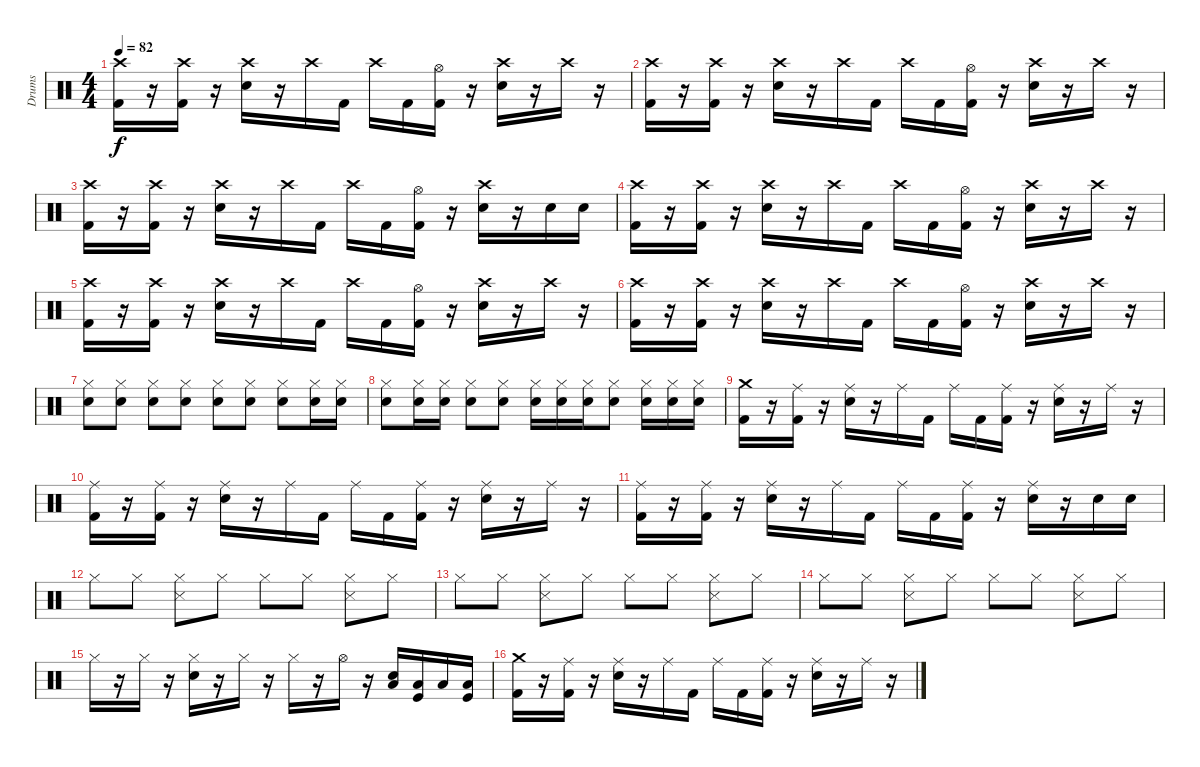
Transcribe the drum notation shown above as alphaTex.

\track ("Drums" "Drums") {instrument percussion}
\staff {score}
\articulation defaults
\ts (4 4)
\tempo 82
\clef neutral
\ks c
("Crash high (hit)" "Kick (hit) 2").16{dy f} r.16 ("Crash high (hit)" "Kick (hit) 2").16 r.16 ("Crash high (hit)" "Electric Snare (hit)").16 r.16 "Crash high (hit)".16 "Kick (hit) 2".16 "Crash high (hit)".16 "Kick (hit) 2".16 ("Hi-Hat (open)" "Kick (hit) 2").16 r.16 ("Crash high (hit)" "Electric Snare (hit)").16 r.16 "Crash high (hit)".16 r.16 |
("Crash high (hit)" "Kick (hit) 2").16 r.16 ("Crash high (hit)" "Kick (hit) 2").16 r.16 ("Crash high (hit)" "Electric Snare (hit)").16 r.16 "Crash high (hit)".16 "Kick (hit) 2".16 "Crash high (hit)".16 "Kick (hit) 2".16 ("Hi-Hat (open)" "Kick (hit) 2").16 r.16 ("Crash high (hit)" "Electric Snare (hit)").16 r.16 "Crash high (hit)".16 r.16 |
("Crash high (hit)" "Kick (hit) 2").16 r.16 ("Crash high (hit)" "Kick (hit) 2").16 r.16 ("Crash high (hit)" "Electric Snare (hit)").16 r.16 "Crash high (hit)".16 "Kick (hit) 2".16 "Crash high (hit)".16 "Kick (hit) 2".16 ("Hi-Hat (open)" "Kick (hit) 2").16 r.16 ("Crash high (hit)" "Electric Snare (hit)").16 r.16 "Electric Snare (hit)".16 "Electric Snare (hit)".16 |
("Crash high (hit)" "Kick (hit) 2").16 r.16 ("Crash high (hit)" "Kick (hit) 2").16 r.16 ("Crash high (hit)" "Electric Snare (hit)").16 r.16 "Crash high (hit)".16 "Kick (hit) 2".16 "Crash high (hit)".16 "Kick (hit) 2".16 ("Hi-Hat (open)" "Kick (hit) 2").16 r.16 ("Crash high (hit)" "Electric Snare (hit)").16 r.16 "Crash high (hit)".16 r.16 |
("Crash high (hit)" "Kick (hit) 2").16 r.16 ("Crash high (hit)" "Kick (hit) 2").16 r.16 ("Crash high (hit)" "Electric Snare (hit)").16 r.16 "Crash high (hit)".16 "Kick (hit) 2".16 "Crash high (hit)".16 "Kick (hit) 2".16 ("Hi-Hat (open)" "Kick (hit) 2").16 r.16 ("Crash high (hit)" "Electric Snare (hit)").16 r.16 "Crash high (hit)".16 r.16 |
("Crash high (hit)" "Kick (hit) 2").16 r.16 ("Crash high (hit)" "Kick (hit) 2").16 r.16 ("Crash high (hit)" "Electric Snare (hit)").16 r.16 "Crash high (hit)".16 "Kick (hit) 2".16 "Crash high (hit)".16 "Kick (hit) 2".16 ("Hi-Hat (open)" "Kick (hit) 2").16 r.16 ("Crash high (hit)" "Electric Snare (hit)").16 r.16 "Crash high (hit)".16 r.16 |
("Electric Snare (hit)" "Hi-Hat (closed)").8 ("Electric Snare (hit)" "Hi-Hat (closed)").8 ("Electric Snare (hit)" "Hi-Hat (closed)").8 ("Electric Snare (hit)" "Hi-Hat (closed)").8 ("Electric Snare (hit)" "Hi-Hat (closed)").8 ("Electric Snare (hit)" "Hi-Hat (closed)").8 ("Electric Snare (hit)" "Hi-Hat (closed)").8 ("Electric Snare (hit)" "Hi-Hat (closed)").16 ("Electric Snare (hit)" "Hi-Hat (closed)").16 |
("Electric Snare (hit)" "Hi-Hat (closed)").8 ("Electric Snare (hit)" "Hi-Hat (closed)").16 ("Electric Snare (hit)" "Hi-Hat (closed)").16 ("Electric Snare (hit)" "Hi-Hat (closed)").8 ("Electric Snare (hit)" "Hi-Hat (closed)").8 ("Electric Snare (hit)" "Hi-Hat (closed)").16 ("Electric Snare (hit)" "Hi-Hat (closed)").16 ("Electric Snare (hit)" "Hi-Hat (closed)").16 ("Electric Snare (hit)" "Hi-Hat (closed)").8 ("Electric Snare (hit)" "Hi-Hat (closed)").16 ("Electric Snare (hit)" "Hi-Hat (closed)").16 ("Electric Snare (hit)" "Hi-Hat (closed)").16 |
("Crash medium (hit)" "Kick (hit) 2").16 r.16 ("Ride (middle)" "Kick (hit) 2").16 r.16 ("Ride (middle)" "Electric Snare (hit)").16 r.16 "Ride (middle)".16 "Kick (hit) 2".16 "Ride (middle)".16 "Kick (hit) 2".16 ("Ride (middle)" "Kick (hit) 2").16 r.16 ("Ride (middle)" "Electric Snare (hit)").16 r.16 "Ride (middle)".16 r.16 |
("Ride (middle)" "Kick (hit) 2").16 r.16 ("Ride (middle)" "Kick (hit) 2").16 r.16 ("Ride (middle)" "Electric Snare (hit)").16 r.16 "Ride (middle)".16 "Kick (hit) 2".16 "Ride (middle)".16 "Kick (hit) 2".16 ("Ride (middle)" "Kick (hit) 2").16 r.16 ("Ride (middle)" "Electric Snare (hit)").16 r.16 "Ride (middle)".16 r.16 |
("Ride (middle)" "Kick (hit) 2").16 r.16 ("Ride (middle)" "Kick (hit) 2").16 r.16 ("Ride (middle)" "Electric Snare (hit)").16 r.16 "Ride (middle)".16 "Kick (hit) 2".16 "Ride (middle)".16 "Kick (hit) 2".16 ("Ride (middle)" "Kick (hit) 2").16 r.16 ("Ride (middle)" "Electric Snare (hit)").16 r.16 "Electric Snare (hit)".16 "Electric Snare (hit)".16 |
"Hi-Hat (closed)".8 "Hi-Hat (closed)".8 ("Hi-Hat (closed)" "Snare (side stick) 3").8 "Hi-Hat (closed)".8 "Hi-Hat (closed)".8 "Hi-Hat (closed)".8 ("Hi-Hat (closed)" "Snare (side stick) 3").8 "Hi-Hat (closed)".8 |
"Hi-Hat (closed)".8 "Hi-Hat (closed)".8 ("Hi-Hat (closed)" "Snare (side stick) 3").8 "Hi-Hat (closed)".8 "Hi-Hat (closed)".8 "Hi-Hat (closed)".8 ("Hi-Hat (closed)" "Snare (side stick) 3").8 "Hi-Hat (closed)".8 |
"Hi-Hat (closed)".8 "Hi-Hat (closed)".8 ("Hi-Hat (closed)" "Snare (side stick) 3").8 "Hi-Hat (closed)".8 "Hi-Hat (closed)".8 "Hi-Hat (closed)".8 ("Hi-Hat (closed)" "Snare (side stick) 3").8 "Hi-Hat (closed)".8 |
"Hi-Hat (closed)".16 r.16 "Hi-Hat (closed)".16 r.16 ("Hi-Hat (closed)" "Electric Snare (hit)").16 r.16 "Hi-Hat (closed)".16 r.16 "Hi-Hat (closed)".16 r.16 "Hi-Hat (open)".16 r.16 ("Low Tom (hit)" "Electric Snare (hit)").16 ("Low Tom (hit)" "Kick (hit)").16 "Low Tom (hit)".16 ("Low Tom (hit)" "Kick (hit)").16 |
("Crash medium (hit)" "Kick (hit) 2").16 r.16 ("Ride (middle)" "Kick (hit) 2").16 r.16 ("Ride (middle)" "Electric Snare (hit)").16 r.16 "Ride (middle)".16 "Kick (hit) 2".16 "Ride (middle)".16 "Kick (hit) 2".16 ("Ride (middle)" "Kick (hit) 2").16 r.16 ("Ride (middle)" "Electric Snare (hit)").16 r.16 "Ride (middle)".16 r.16
